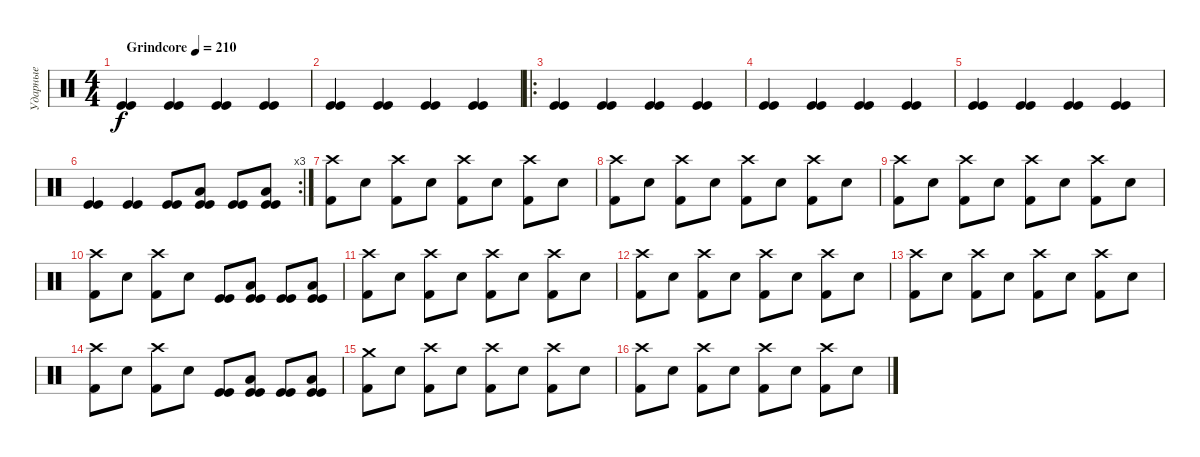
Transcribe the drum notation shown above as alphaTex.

\track ("Ударные" "Ударные") {instrument percussion}
\staff {score}
\articulation defaults
\ts (4 4)
\tempo (210 "Grindcore")
\clef neutral
\ks c
("Kick (hit)" "Kick (hit)").4{dy f} ("Kick (hit)" "Kick (hit)").4 ("Kick (hit)" "Kick (hit)").4 ("Kick (hit)" "Kick (hit)").4 |
("Kick (hit)" "Kick (hit)").4 ("Kick (hit)" "Kick (hit)").4 ("Kick (hit)" "Kick (hit)").4 ("Kick (hit)" "Kick (hit)").4 |
\ro
("Kick (hit)" "Kick (hit)").4 ("Kick (hit)" "Kick (hit)").4 ("Kick (hit)" "Kick (hit)").4 ("Kick (hit)" "Kick (hit)").4 |
("Kick (hit)" "Kick (hit)").4 ("Kick (hit)" "Kick (hit)").4 ("Kick (hit)" "Kick (hit)").4 ("Kick (hit)" "Kick (hit)").4 |
("Kick (hit)" "Kick (hit)").4 ("Kick (hit)" "Kick (hit)").4 ("Kick (hit)" "Kick (hit)").4 ("Kick (hit)" "Kick (hit)").4 |
\rc 3
("Kick (hit)" "Kick (hit)").4 ("Kick (hit)" "Kick (hit)").4 ("Kick (hit)" "Kick (hit)").8 ("Low Tom (hit)" "Kick (hit)" "Kick (hit)").8 ("Kick (hit)" "Kick (hit)").8 ("Low Tom (hit)" "Kick (hit)" "Kick (hit)").8 |
("Crash high (hit)" "Kick (hit) 2").8 "Snare (hit) 2".8 ("Crash high (hit)" "Kick (hit) 2").8 "Snare (hit) 2".8 ("Crash high (hit)" "Kick (hit) 2").8 "Snare (hit) 2".8 ("Crash high (hit)" "Kick (hit) 2").8 "Snare (hit) 2".8 |
("Crash high (hit)" "Kick (hit) 2").8 "Snare (hit) 2".8 ("Crash high (hit)" "Kick (hit) 2").8 "Snare (hit) 2".8 ("Crash high (hit)" "Kick (hit) 2").8 "Snare (hit) 2".8 ("Crash high (hit)" "Kick (hit) 2").8 "Snare (hit) 2".8 |
("Crash high (hit)" "Kick (hit) 2").8 "Snare (hit) 2".8 ("Crash high (hit)" "Kick (hit) 2").8 "Snare (hit) 2".8 ("Crash high (hit)" "Kick (hit) 2").8 "Snare (hit) 2".8 ("Crash high (hit)" "Kick (hit) 2").8 "Snare (hit) 2".8 |
("Crash high (hit)" "Kick (hit) 2").8 "Snare (hit) 2".8 ("Crash high (hit)" "Kick (hit) 2").8 "Snare (hit) 2".8 ("Kick (hit)" "Kick (hit)").8 ("Low Tom (hit)" "Kick (hit)" "Kick (hit)").8 ("Kick (hit)" "Kick (hit)").8 ("Low Tom (hit)" "Kick (hit)" "Kick (hit)").8 |
("Crash high (hit)" "Kick (hit) 2").8 "Snare (hit) 2".8 ("Crash high (hit)" "Kick (hit) 2").8 "Snare (hit) 2".8 ("Crash high (hit)" "Kick (hit) 2").8 "Snare (hit) 2".8 ("Crash high (hit)" "Kick (hit) 2").8 "Snare (hit) 2".8 |
("Crash high (hit)" "Kick (hit) 2").8 "Snare (hit) 2".8 ("Crash high (hit)" "Kick (hit) 2").8 "Snare (hit) 2".8 ("Crash high (hit)" "Kick (hit) 2").8 "Snare (hit) 2".8 ("Crash high (hit)" "Kick (hit) 2").8 "Snare (hit) 2".8 |
("Crash high (hit)" "Kick (hit) 2").8 "Snare (hit) 2".8 ("Crash high (hit)" "Kick (hit) 2").8 "Snare (hit) 2".8 ("Crash high (hit)" "Kick (hit) 2").8 "Snare (hit) 2".8 ("Crash high (hit)" "Kick (hit) 2").8 "Snare (hit) 2".8 |
("Crash high (hit)" "Kick (hit) 2").8 "Snare (hit) 2".8 ("Crash high (hit)" "Kick (hit) 2").8 "Snare (hit) 2".8 ("Kick (hit)" "Kick (hit)").8 ("Low Tom (hit)" "Kick (hit)" "Kick (hit)").8 ("Kick (hit)" "Kick (hit)").8 ("Low Tom (hit)" "Kick (hit)" "Kick (hit)").8 |
("Crash medium (hit)" "Kick (hit) 2").8 "Snare (hit) 2".8 ("Crash high (hit)" "Kick (hit) 2").8 "Snare (hit) 2".8 ("Crash high (hit)" "Kick (hit) 2").8 "Snare (hit) 2".8 ("Crash high (hit)" "Kick (hit) 2").8 "Snare (hit) 2".8 |
("Crash high (hit)" "Kick (hit) 2").8 "Snare (hit) 2".8 ("Crash high (hit)" "Kick (hit) 2").8 "Snare (hit) 2".8 ("Crash high (hit)" "Kick (hit) 2").8 "Snare (hit) 2".8 ("Crash high (hit)" "Kick (hit) 2").8 "Snare (hit) 2".8
